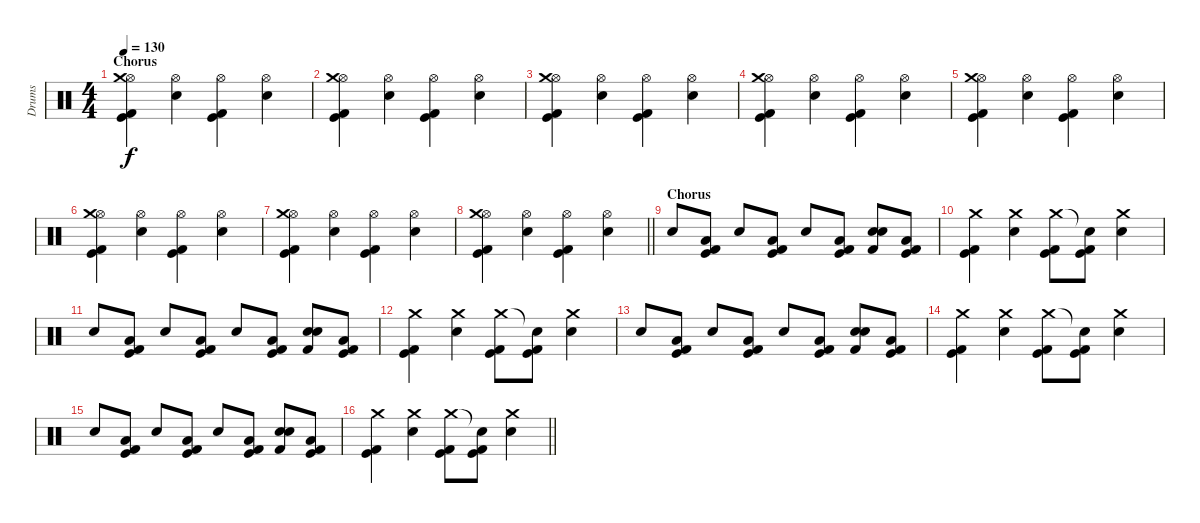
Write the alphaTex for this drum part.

\track ("Drums" "Drums") {instrument percussion}
\staff {score}
\articulation defaults
\ts (4 4)
\section ("" "Chorus")
\tempo 130
\clef neutral
\ks c
("Hi-Hat (open)" "Crash medium (hit)" "Kick (hit)" "Kick (hit) 2").4{dy f} ("Hi-Hat (open)" "Electric Snare (hit)").4 ("Hi-Hat (open)" "Kick (hit)" "Kick (hit) 2").4 ("Hi-Hat (open)" "Electric Snare (hit)").4 |
("Hi-Hat (open)" "Crash medium (hit)" "Kick (hit)" "Kick (hit) 2").4 ("Hi-Hat (open)" "Electric Snare (hit)").4 ("Hi-Hat (open)" "Kick (hit)" "Kick (hit) 2").4 ("Hi-Hat (open)" "Electric Snare (hit)").4 |
("Hi-Hat (open)" "Crash medium (hit)" "Kick (hit)" "Kick (hit) 2").4 ("Hi-Hat (open)" "Electric Snare (hit)").4 ("Hi-Hat (open)" "Kick (hit)" "Kick (hit) 2").4 ("Hi-Hat (open)" "Electric Snare (hit)").4 |
("Hi-Hat (open)" "Crash medium (hit)" "Kick (hit)" "Kick (hit) 2").4 ("Hi-Hat (open)" "Electric Snare (hit)").4 ("Hi-Hat (open)" "Kick (hit)" "Kick (hit) 2").4 ("Hi-Hat (open)" "Electric Snare (hit)").4 |
("Hi-Hat (open)" "Crash medium (hit)" "Kick (hit)" "Kick (hit) 2").4 ("Hi-Hat (open)" "Electric Snare (hit)").4 ("Hi-Hat (open)" "Kick (hit)" "Kick (hit) 2").4 ("Hi-Hat (open)" "Electric Snare (hit)").4 |
("Hi-Hat (open)" "Crash medium (hit)" "Kick (hit)" "Kick (hit) 2").4 ("Hi-Hat (open)" "Electric Snare (hit)").4 ("Hi-Hat (open)" "Kick (hit)" "Kick (hit) 2").4 ("Hi-Hat (open)" "Electric Snare (hit)").4 |
("Hi-Hat (open)" "Crash medium (hit)" "Kick (hit)" "Kick (hit) 2").4 ("Hi-Hat (open)" "Electric Snare (hit)").4 ("Hi-Hat (open)" "Kick (hit)" "Kick (hit) 2").4 ("Hi-Hat (open)" "Electric Snare (hit)").4 |
\barLineRight lightlight
("Hi-Hat (open)" "Crash medium (hit)" "Kick (hit)" "Kick (hit) 2").4 ("Hi-Hat (open)" "Electric Snare (hit)").4 ("Hi-Hat (open)" "Kick (hit)" "Kick (hit) 2").4 ("Hi-Hat (open)" "Electric Snare (hit)").4 |
\section ("" "Chorus")
"Snare (hit) 2".8 ("Low Floor Tom (hit)" "Kick (hit)" "Kick (hit) 2").8 "Snare (hit) 2".8 ("Low Floor Tom (hit)" "Kick (hit)" "Kick (hit) 2").8 "Snare (hit) 2".8 ("Low Floor Tom (hit)" "Kick (hit)" "Kick (hit) 2").8 ("Electric Snare (hit)" "Snare (hit) 2" "Kick (hit) 2").8 ("Low Floor Tom (hit)" "Kick (hit)" "Kick (hit) 2").8 |
("Crash medium (hit)" "Kick (hit)" "Kick (hit) 2").4 ("Crash medium (hit)" "Snare (hit) 2").4 ("Crash medium (hit)" "Kick (hit)" "Kick (hit) 2").8 ("Snare (hit)"{t} "Kick (hit)" "Kick (hit) 2").8 ("Crash medium (hit)" "Snare (hit) 2").4 |
"Snare (hit) 2".8 ("Low Floor Tom (hit)" "Kick (hit)" "Kick (hit) 2").8 "Snare (hit) 2".8 ("Low Floor Tom (hit)" "Kick (hit)" "Kick (hit) 2").8 "Snare (hit) 2".8 ("Low Floor Tom (hit)" "Kick (hit)" "Kick (hit) 2").8 ("Electric Snare (hit)" "Snare (hit) 2" "Kick (hit) 2").8 ("Low Floor Tom (hit)" "Kick (hit)" "Kick (hit) 2").8 |
("Crash medium (hit)" "Kick (hit)" "Kick (hit) 2").4 ("Crash medium (hit)" "Snare (hit) 2").4 ("Crash medium (hit)" "Kick (hit)" "Kick (hit) 2").8 ("Snare (hit)"{t} "Kick (hit)" "Kick (hit) 2").8 ("Crash medium (hit)" "Snare (hit) 2").4 |
"Snare (hit) 2".8 ("Low Floor Tom (hit)" "Kick (hit)" "Kick (hit) 2").8 "Snare (hit) 2".8 ("Low Floor Tom (hit)" "Kick (hit)" "Kick (hit) 2").8 "Snare (hit) 2".8 ("Low Floor Tom (hit)" "Kick (hit)" "Kick (hit) 2").8 ("Electric Snare (hit)" "Snare (hit) 2" "Kick (hit) 2").8 ("Low Floor Tom (hit)" "Kick (hit)" "Kick (hit) 2").8 |
("Crash medium (hit)" "Kick (hit)" "Kick (hit) 2").4 ("Crash medium (hit)" "Snare (hit) 2").4 ("Crash medium (hit)" "Kick (hit)" "Kick (hit) 2").8 ("Snare (hit)"{t} "Kick (hit)" "Kick (hit) 2").8 ("Crash medium (hit)" "Snare (hit) 2").4 |
"Snare (hit) 2".8 ("Low Floor Tom (hit)" "Kick (hit)" "Kick (hit) 2").8 "Snare (hit) 2".8 ("Low Floor Tom (hit)" "Kick (hit)" "Kick (hit) 2").8 "Snare (hit) 2".8 ("Low Floor Tom (hit)" "Kick (hit)" "Kick (hit) 2").8 ("Electric Snare (hit)" "Snare (hit) 2" "Kick (hit) 2").8 ("Low Floor Tom (hit)" "Kick (hit)" "Kick (hit) 2").8 |
\barLineRight lightlight
("Crash medium (hit)" "Kick (hit)" "Kick (hit) 2").4 ("Crash medium (hit)" "Snare (hit) 2").4 ("Crash medium (hit)" "Kick (hit)" "Kick (hit) 2").8 ("Snare (hit)"{t} "Kick (hit)" "Kick (hit) 2").8 ("Crash medium (hit)" "Snare (hit) 2").4
